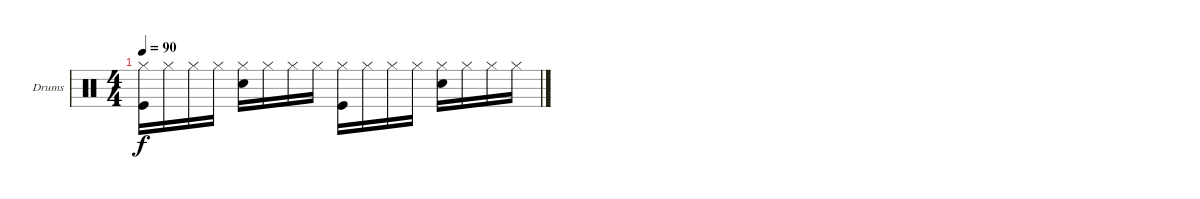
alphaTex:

\defaultSystemsLayout 4
\bracketExtendMode groupsimilarinstruments
\firstSystemTrackNameOrientation horizontal
\otherSystemsTrackNameOrientation horizontal
\track ("Drumkit" "Drums") {instrument percussion}
\staff {score}
\articulation defaults
\ts (4 4)
\tempo 90
\clef neutral
\ks c
("Kick (hit)" "Hi-Hat (closed)").16{dy f} "Hi-Hat (closed)".16 "Hi-Hat (closed)".16 "Hi-Hat (closed)".16 ("Snare (hit) 2" "Hi-Hat (closed)").16 "Hi-Hat (closed)".16 "Hi-Hat (closed)".16 "Hi-Hat (closed)".16 ("Kick (hit)" "Hi-Hat (closed)").16 "Hi-Hat (closed)".16 "Hi-Hat (closed)".16 "Hi-Hat (closed)".16 ("Hi-Hat (closed)" "Snare (hit) 2").16 "Hi-Hat (closed)".16 "Hi-Hat (closed)".16 "Hi-Hat (closed)".16
